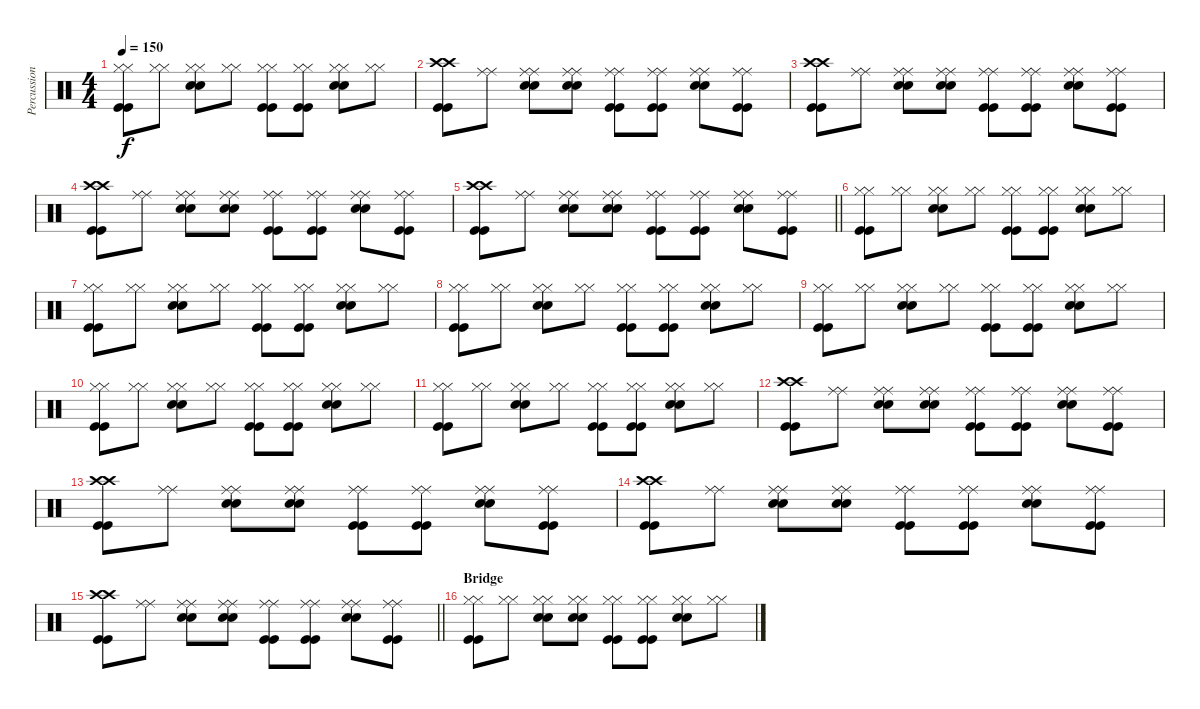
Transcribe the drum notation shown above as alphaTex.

\track ("Percussion" "Percussion") {instrument percussion bank 129}
\staff
\articulation defaults
\ts (4 4)
\tempo 150
\clef neutral
\ks c
("Hi-Hat (closed)" "Hi-Hat (closed)" "Kick (hit)" "Kick (hit)").8{dy f} ("Hi-Hat (closed)" "Hi-Hat (closed)").8 ("Hi-Hat (closed)" "Hi-Hat (closed)" "Snare (hit) 2" "Snare (hit) 2").8 ("Hi-Hat (closed)" "Hi-Hat (closed)").8 ("Hi-Hat (closed)" "Hi-Hat (closed)" "Kick (hit)" "Kick (hit)").8 ("Hi-Hat (closed)" "Hi-Hat (closed)" "Kick (hit)" "Kick (hit)").8 ("Hi-Hat (closed)" "Hi-Hat (closed)" "Snare (hit) 2" "Snare (hit) 2").8 ("Hi-Hat (closed)" "Hi-Hat (closed)").8 |
("Crash high (hit)" "Crash high (hit)" "Kick (hit)" "Kick (hit)").8 ("Ride (middle)" "Ride (middle)").8 ("Ride (middle)" "Ride (middle)" "Snare (hit) 2" "Snare (hit) 2").8 ("Ride (middle)" "Ride (middle)" "Snare (hit) 2" "Snare (hit) 2").8 ("Ride (middle)" "Ride (middle)" "Kick (hit)" "Kick (hit)").8 ("Ride (middle)" "Ride (middle)" "Kick (hit)" "Kick (hit)").8 ("Ride (middle)" "Ride (middle)" "Snare (hit) 2" "Snare (hit) 2").8 ("Ride (middle)" "Ride (middle)" "Kick (hit)" "Kick (hit)").8 |
("Crash high (hit)" "Crash high (hit)" "Kick (hit)" "Kick (hit)").8 ("Ride (middle)" "Ride (middle)").8 ("Ride (middle)" "Ride (middle)" "Snare (hit) 2" "Snare (hit) 2").8 ("Ride (middle)" "Ride (middle)" "Snare (hit) 2" "Snare (hit) 2").8 ("Ride (middle)" "Ride (middle)" "Kick (hit)" "Kick (hit)").8 ("Ride (middle)" "Ride (middle)" "Kick (hit)" "Kick (hit)").8 ("Ride (middle)" "Ride (middle)" "Snare (hit) 2" "Snare (hit) 2").8 ("Ride (middle)" "Ride (middle)" "Kick (hit)" "Kick (hit)").8 |
("Crash high (hit)" "Crash high (hit)" "Kick (hit)" "Kick (hit)").8 ("Ride (middle)" "Ride (middle)").8 ("Ride (middle)" "Ride (middle)" "Snare (hit) 2" "Snare (hit) 2").8 ("Ride (middle)" "Ride (middle)" "Snare (hit) 2" "Snare (hit) 2").8 ("Ride (middle)" "Ride (middle)" "Kick (hit)" "Kick (hit)").8 ("Ride (middle)" "Ride (middle)" "Kick (hit)" "Kick (hit)").8 ("Ride (middle)" "Ride (middle)" "Snare (hit) 2" "Snare (hit) 2").8 ("Ride (middle)" "Ride (middle)" "Kick (hit)" "Kick (hit)").8 |
\barLineRight lightlight
("Crash high (hit)" "Crash high (hit)" "Kick (hit)" "Kick (hit)").8 ("Ride (middle)" "Ride (middle)").8 ("Ride (middle)" "Ride (middle)" "Snare (hit) 2" "Snare (hit) 2").8 ("Ride (middle)" "Ride (middle)" "Snare (hit) 2" "Snare (hit) 2").8 ("Ride (middle)" "Ride (middle)" "Kick (hit)" "Kick (hit)").8 ("Ride (middle)" "Ride (middle)" "Kick (hit)" "Kick (hit)").8 ("Ride (middle)" "Ride (middle)" "Snare (hit) 2" "Snare (hit) 2").8 ("Ride (middle)" "Ride (middle)" "Kick (hit)" "Kick (hit)").8 |
("Hi-Hat (closed)" "Hi-Hat (closed)" "Kick (hit)" "Kick (hit)").8 ("Hi-Hat (closed)" "Hi-Hat (closed)").8 ("Hi-Hat (closed)" "Hi-Hat (closed)" "Snare (hit) 2" "Snare (hit) 2").8 ("Hi-Hat (closed)" "Hi-Hat (closed)").8 ("Hi-Hat (closed)" "Hi-Hat (closed)" "Kick (hit)" "Kick (hit)").8 ("Hi-Hat (closed)" "Hi-Hat (closed)" "Kick (hit)" "Kick (hit)").8 ("Hi-Hat (closed)" "Hi-Hat (closed)" "Snare (hit) 2" "Snare (hit) 2").8 ("Hi-Hat (closed)" "Hi-Hat (closed)").8 |
("Hi-Hat (closed)" "Hi-Hat (closed)" "Kick (hit)" "Kick (hit)").8 ("Hi-Hat (closed)" "Hi-Hat (closed)").8 ("Hi-Hat (closed)" "Hi-Hat (closed)" "Snare (hit) 2" "Snare (hit) 2").8 ("Hi-Hat (closed)" "Hi-Hat (closed)").8 ("Hi-Hat (closed)" "Hi-Hat (closed)" "Kick (hit)" "Kick (hit)").8 ("Hi-Hat (closed)" "Hi-Hat (closed)" "Kick (hit)" "Kick (hit)").8 ("Hi-Hat (closed)" "Hi-Hat (closed)" "Snare (hit) 2" "Snare (hit) 2").8 ("Hi-Hat (closed)" "Hi-Hat (closed)").8 |
("Hi-Hat (closed)" "Hi-Hat (closed)" "Kick (hit)" "Kick (hit)").8 ("Hi-Hat (closed)" "Hi-Hat (closed)").8 ("Hi-Hat (closed)" "Hi-Hat (closed)" "Snare (hit) 2" "Snare (hit) 2").8 ("Hi-Hat (closed)" "Hi-Hat (closed)").8 ("Hi-Hat (closed)" "Hi-Hat (closed)" "Kick (hit)" "Kick (hit)").8 ("Hi-Hat (closed)" "Hi-Hat (closed)" "Kick (hit)" "Kick (hit)").8 ("Hi-Hat (closed)" "Hi-Hat (closed)" "Snare (hit) 2" "Snare (hit) 2").8 ("Hi-Hat (closed)" "Hi-Hat (closed)").8 |
("Hi-Hat (closed)" "Hi-Hat (closed)" "Kick (hit)" "Kick (hit)").8 ("Hi-Hat (closed)" "Hi-Hat (closed)").8 ("Hi-Hat (closed)" "Hi-Hat (closed)" "Snare (hit) 2" "Snare (hit) 2").8 ("Hi-Hat (closed)" "Hi-Hat (closed)").8 ("Hi-Hat (closed)" "Hi-Hat (closed)" "Kick (hit)" "Kick (hit)").8 ("Hi-Hat (closed)" "Hi-Hat (closed)" "Kick (hit)" "Kick (hit)").8 ("Hi-Hat (closed)" "Hi-Hat (closed)" "Snare (hit) 2" "Snare (hit) 2").8 ("Hi-Hat (closed)" "Hi-Hat (closed)").8 |
("Hi-Hat (closed)" "Hi-Hat (closed)" "Kick (hit)" "Kick (hit)").8 ("Hi-Hat (closed)" "Hi-Hat (closed)").8 ("Hi-Hat (closed)" "Hi-Hat (closed)" "Snare (hit) 2" "Snare (hit) 2").8 ("Hi-Hat (closed)" "Hi-Hat (closed)").8 ("Hi-Hat (closed)" "Hi-Hat (closed)" "Kick (hit)" "Kick (hit)").8 ("Hi-Hat (closed)" "Hi-Hat (closed)" "Kick (hit)" "Kick (hit)").8 ("Hi-Hat (closed)" "Hi-Hat (closed)" "Snare (hit) 2" "Snare (hit) 2").8 ("Hi-Hat (closed)" "Hi-Hat (closed)").8 |
("Hi-Hat (closed)" "Hi-Hat (closed)" "Kick (hit)" "Kick (hit)").8 ("Hi-Hat (closed)" "Hi-Hat (closed)").8 ("Hi-Hat (closed)" "Hi-Hat (closed)" "Snare (hit) 2" "Snare (hit) 2").8 ("Hi-Hat (closed)" "Hi-Hat (closed)").8 ("Hi-Hat (closed)" "Hi-Hat (closed)" "Kick (hit)" "Kick (hit)").8 ("Hi-Hat (closed)" "Hi-Hat (closed)" "Kick (hit)" "Kick (hit)").8 ("Hi-Hat (closed)" "Hi-Hat (closed)" "Snare (hit) 2" "Snare (hit) 2").8 ("Hi-Hat (closed)" "Hi-Hat (closed)").8 |
("Crash high (hit)" "Crash high (hit)" "Kick (hit)" "Kick (hit)").8 ("Ride (middle)" "Ride (middle)").8 ("Ride (middle)" "Ride (middle)" "Snare (hit) 2" "Snare (hit) 2").8 ("Ride (middle)" "Ride (middle)" "Snare (hit) 2" "Snare (hit) 2").8 ("Ride (middle)" "Ride (middle)" "Kick (hit)" "Kick (hit)").8 ("Ride (middle)" "Ride (middle)" "Kick (hit)" "Kick (hit)").8 ("Ride (middle)" "Ride (middle)" "Snare (hit) 2" "Snare (hit) 2").8 ("Ride (middle)" "Ride (middle)" "Kick (hit)" "Kick (hit)").8 |
("Crash high (hit)" "Crash high (hit)" "Kick (hit)" "Kick (hit)").8 ("Ride (middle)" "Ride (middle)").8 ("Ride (middle)" "Ride (middle)" "Snare (hit) 2" "Snare (hit) 2").8 ("Ride (middle)" "Ride (middle)" "Snare (hit) 2" "Snare (hit) 2").8 ("Ride (middle)" "Ride (middle)" "Kick (hit)" "Kick (hit)").8 ("Ride (middle)" "Ride (middle)" "Kick (hit)" "Kick (hit)").8 ("Ride (middle)" "Ride (middle)" "Snare (hit) 2" "Snare (hit) 2").8 ("Ride (middle)" "Ride (middle)" "Kick (hit)" "Kick (hit)").8 |
("Crash high (hit)" "Crash high (hit)" "Kick (hit)" "Kick (hit)").8 ("Ride (middle)" "Ride (middle)").8 ("Ride (middle)" "Ride (middle)" "Snare (hit) 2" "Snare (hit) 2").8 ("Ride (middle)" "Ride (middle)" "Snare (hit) 2" "Snare (hit) 2").8 ("Ride (middle)" "Ride (middle)" "Kick (hit)" "Kick (hit)").8 ("Ride (middle)" "Ride (middle)" "Kick (hit)" "Kick (hit)").8 ("Ride (middle)" "Ride (middle)" "Snare (hit) 2" "Snare (hit) 2").8 ("Ride (middle)" "Ride (middle)" "Kick (hit)" "Kick (hit)").8 |
\barLineRight lightlight
("Crash high (hit)" "Crash high (hit)" "Kick (hit)" "Kick (hit)").8 ("Ride (middle)" "Ride (middle)").8 ("Ride (middle)" "Ride (middle)" "Snare (hit) 2" "Snare (hit) 2").8 ("Ride (middle)" "Ride (middle)" "Snare (hit) 2" "Snare (hit) 2").8 ("Ride (middle)" "Ride (middle)" "Kick (hit)" "Kick (hit)").8 ("Ride (middle)" "Ride (middle)" "Kick (hit)" "Kick (hit)").8 ("Ride (middle)" "Ride (middle)" "Snare (hit) 2" "Snare (hit) 2").8 ("Ride (middle)" "Ride (middle)" "Kick (hit)" "Kick (hit)").8 |
\section ("" "Bridge")
("Hi-Hat (closed)" "Hi-Hat (closed)" "Kick (hit)" "Kick (hit)").8 ("Hi-Hat (closed)" "Hi-Hat (closed)").8 ("Hi-Hat (closed)" "Hi-Hat (closed)" "Snare (hit) 2" "Snare (hit) 2").8 ("Hi-Hat (closed)" "Hi-Hat (closed)" "Snare (hit) 2" "Snare (hit) 2").8 ("Hi-Hat (closed)" "Hi-Hat (closed)" "Kick (hit)" "Kick (hit)").8 ("Hi-Hat (closed)" "Hi-Hat (closed)" "Kick (hit)" "Kick (hit)").8 ("Hi-Hat (closed)" "Hi-Hat (closed)" "Snare (hit) 2" "Snare (hit) 2").8 ("Hi-Hat (closed)" "Hi-Hat (closed)").8
